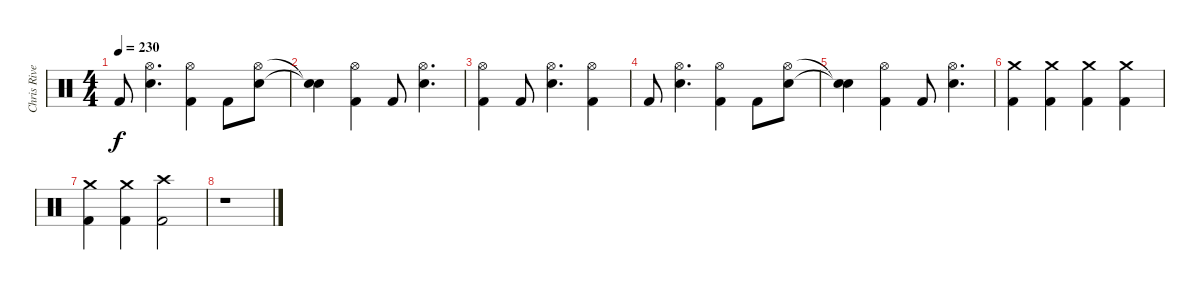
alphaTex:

\track ("Chris Rivers" "Chris Rive") {instrument percussion}
\staff {score}
\articulation defaults
\ts (4 4)
\tempo 230
\clef neutral
\ks c "Kick (hit) 2".8{dy f}
("Hi-Hat (open)" "Electric Snare (hit)").4{d} ("Hi-Hat (open)" "Kick (hit) 2").4 "Kick (hit) 2".8 ("Hi-Hat (open)" "Electric Snare (hit)").8 |
("Snare (hit)"{t} "Snare (hit)"{t}).4 ("Hi-Hat (open)" "Kick (hit) 2").4 "Kick (hit) 2".8 ("Hi-Hat (open)" "Electric Snare (hit)").4{d} |
("Hi-Hat (open)" "Kick (hit) 2").4 "Kick (hit) 2".8 ("Hi-Hat (open)" "Electric Snare (hit)").4{d} ("Hi-Hat (open)" "Kick (hit) 2").4 |
"Kick (hit) 2".8 ("Hi-Hat (open)" "Electric Snare (hit)").4{d} ("Hi-Hat (open)" "Kick (hit) 2").4 "Kick (hit) 2".8 ("Hi-Hat (open)" "Electric Snare (hit)").8 |
("Snare (hit)"{t} "Snare (hit)"{t}).4 ("Hi-Hat (open)" "Kick (hit) 2").4 "Kick (hit) 2".8 ("Hi-Hat (open)" "Electric Snare (hit)").4{d} |
("Crash medium (hit)" "Kick (hit) 2").4 ("Crash medium (hit)" "Kick (hit) 2").4 ("Crash medium (hit)" "Kick (hit) 2").4 ("Crash medium (hit)" "Kick (hit) 2").4 |
("Crash medium (hit)" "Kick (hit) 2").4 ("Crash medium (hit)" "Kick (hit) 2").4 ("Crash high (hit)" "Kick (hit) 2").2 |
r.1
